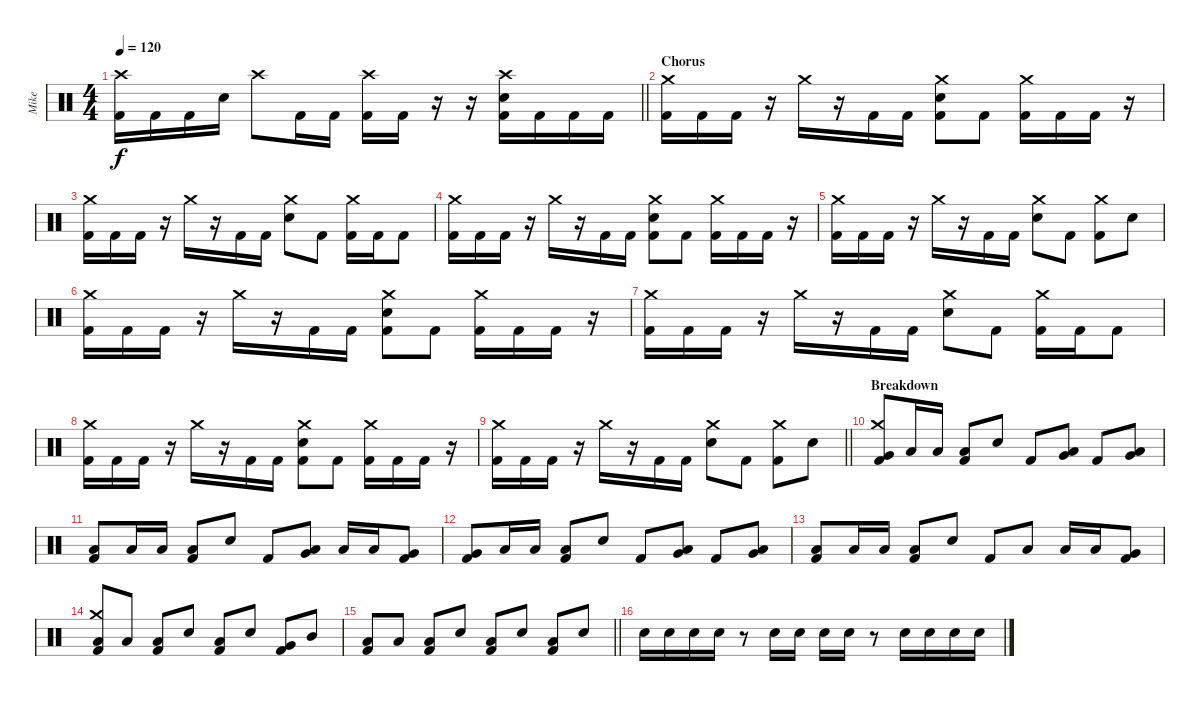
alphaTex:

\track ("Mike" "Mike") {instrument percussion}
\staff {score}
\articulation defaults
\ts (4 4)
\tempo 120
\clef neutral
\barLineRight lightlight
\ks c
("Crash high (hit)" "Kick (hit) 2").16{dy f} "Kick (hit) 2".16 "Kick (hit) 2".16 "Snare (hit) 2".16 "Crash high (hit)".8 "Kick (hit) 2".16 "Kick (hit) 2".16 ("Crash high (hit)" "Kick (hit) 2").16 "Kick (hit) 2".16 r.16 r.16 ("Crash high (hit)" "Snare (hit) 2" "Kick (hit) 2").16 "Kick (hit) 2".16 "Kick (hit) 2".16 "Kick (hit) 2".16 |
\section ("" "Chorus")
("Crash medium (hit)" "Kick (hit) 2").16 "Kick (hit) 2".16 "Kick (hit) 2".16 r.16 "Crash medium (hit)".16 r.16 "Kick (hit) 2".16 "Kick (hit) 2".16 ("Crash medium (hit)" "Snare (hit) 2" "Kick (hit) 2").8 "Kick (hit) 2".8 ("Crash medium (hit)" "Kick (hit) 2").16 "Kick (hit) 2".16 "Kick (hit) 2".16 r.16 |
("Crash medium (hit)" "Kick (hit) 2").16 "Kick (hit) 2".16 "Kick (hit) 2".16 r.16 "Crash medium (hit)".16 r.16 "Kick (hit) 2".16 "Kick (hit) 2".16 ("Crash medium (hit)" "Snare (hit) 2").8 "Kick (hit) 2".8 ("Crash medium (hit)" "Kick (hit) 2").16 "Kick (hit) 2".16 "Kick (hit) 2".8 |
("Crash medium (hit)" "Kick (hit) 2").16 "Kick (hit) 2".16 "Kick (hit) 2".16 r.16 "Crash medium (hit)".16 r.16 "Kick (hit) 2".16 "Kick (hit) 2".16 ("Crash medium (hit)" "Snare (hit) 2" "Kick (hit) 2").8 "Kick (hit) 2".8 ("Crash medium (hit)" "Kick (hit) 2").16 "Kick (hit) 2".16 "Kick (hit) 2".16 r.16 |
("Crash medium (hit)" "Kick (hit) 2").16 "Kick (hit) 2".16 "Kick (hit) 2".16 r.16 "Crash medium (hit)".16 r.16 "Kick (hit) 2".16 "Kick (hit) 2".16 ("Crash medium (hit)" "Snare (hit) 2").8 "Kick (hit) 2".8 ("Crash medium (hit)" "Kick (hit) 2").8 "Snare (hit) 2".8 |
("Crash medium (hit)" "Kick (hit) 2").16 "Kick (hit) 2".16 "Kick (hit) 2".16 r.16 "Crash medium (hit)".16 r.16 "Kick (hit) 2".16 "Kick (hit) 2".16 ("Crash medium (hit)" "Snare (hit) 2" "Kick (hit) 2").8 "Kick (hit) 2".8 ("Crash medium (hit)" "Kick (hit) 2").16 "Kick (hit) 2".16 "Kick (hit) 2".16 r.16 |
("Crash medium (hit)" "Kick (hit) 2").16 "Kick (hit) 2".16 "Kick (hit) 2".16 r.16 "Crash medium (hit)".16 r.16 "Kick (hit) 2".16 "Kick (hit) 2".16 ("Crash medium (hit)" "Snare (hit) 2").8 "Kick (hit) 2".8 ("Crash medium (hit)" "Kick (hit) 2").16 "Kick (hit) 2".16 "Kick (hit) 2".8 |
("Crash medium (hit)" "Kick (hit) 2").16 "Kick (hit) 2".16 "Kick (hit) 2".16 r.16 "Crash medium (hit)".16 r.16 "Kick (hit) 2".16 "Kick (hit) 2".16 ("Crash medium (hit)" "Snare (hit) 2" "Kick (hit) 2").8 "Kick (hit) 2".8 ("Crash medium (hit)" "Kick (hit) 2").16 "Kick (hit) 2".16 "Kick (hit) 2".16 r.16 |
\barLineRight lightlight
("Crash medium (hit)" "Kick (hit) 2").16 "Kick (hit) 2".16 "Kick (hit) 2".16 r.16 "Crash medium (hit)".16 r.16 "Kick (hit) 2".16 "Kick (hit) 2".16 ("Crash medium (hit)" "Snare (hit) 2").8 "Kick (hit) 2".8 ("Crash medium (hit)" "Kick (hit) 2").8 "Snare (hit) 2".8 |
\section ("" "Breakdown")
("Crash medium (hit)" "Very Low Tom (hit)" "Kick (hit) 2").8 "Low Tom (hit)".16 "Low Tom (hit)".16 ("Low Tom (hit)" "Kick (hit) 2").8 "Snare (hit) 2".8 "Kick (hit) 2".8 ("Low Floor Tom (hit)" "Very Low Tom (hit)").8 "Kick (hit) 2".8 ("Low Floor Tom (hit)" "Very Low Tom (hit)").8 |
("Low Tom (hit)" "Kick (hit) 2").8 "Low Tom (hit)".16 "Low Tom (hit)".16 ("Low Tom (hit)" "Kick (hit) 2").8 "Snare (hit) 2".8 "Kick (hit) 2".8 ("Very Low Tom (hit)" "Low Tom (hit)").8 "Low Floor Tom (hit)".16 "Low Floor Tom (hit)".16 ("Very Low Tom (hit)" "Kick (hit) 2").8 |
("Very Low Tom (hit)" "Kick (hit) 2").8 "Low Tom (hit)".16 "Low Tom (hit)".16 ("Low Tom (hit)" "Kick (hit) 2").8 "Snare (hit) 2".8 "Kick (hit) 2".8 ("Low Floor Tom (hit)" "Very Low Tom (hit)").8 "Kick (hit) 2".8 ("Low Floor Tom (hit)" "Very Low Tom (hit)").8 |
("Low Tom (hit)" "Kick (hit) 2").8 "Low Tom (hit)".16 "Low Tom (hit)".16 ("Low Tom (hit)" "Kick (hit) 2").8 "Snare (hit) 2".8 "Kick (hit) 2".8 "Low Tom (hit)".8 "Low Floor Tom (hit)".16 "Low Floor Tom (hit)".16 ("Very Low Tom (hit)" "Kick (hit) 2").8 |
("Crash medium (hit)" "Low Floor Tom (hit)" "Kick (hit) 2").8 "Low Floor Tom (hit)".8 ("Low Floor Tom (hit)" "Kick (hit) 2").8 "Snare (hit) 2".8 ("Low Floor Tom (hit)" "Kick (hit) 2").8 "Snare (hit) 2".8 ("Very Low Tom (hit)" "Kick (hit) 2").8 "Mid Tom (hit)".8 |
\barLineRight lightlight
("Low Floor Tom (hit)" "Kick (hit) 2").8 "Low Floor Tom (hit)".8 ("Low Floor Tom (hit)" "Kick (hit) 2").8 "Snare (hit) 2".8 ("Low Floor Tom (hit)" "Kick (hit) 2").8 "Snare (hit) 2".8 ("Low Floor Tom (hit)" "Kick (hit) 2").8 "Snare (hit) 2".8 |
"Snare (hit) 2".16 "Snare (hit) 2".16 "Snare (hit) 2".16 "Snare (hit) 2".16 r.8 "Snare (hit) 2".16 "Snare (hit) 2".16 "Snare (hit) 2".16 "Snare (hit) 2".16 r.8 "Snare (hit) 2".16 "Snare (hit) 2".16 "Snare (hit) 2".16 "Snare (hit) 2".16
